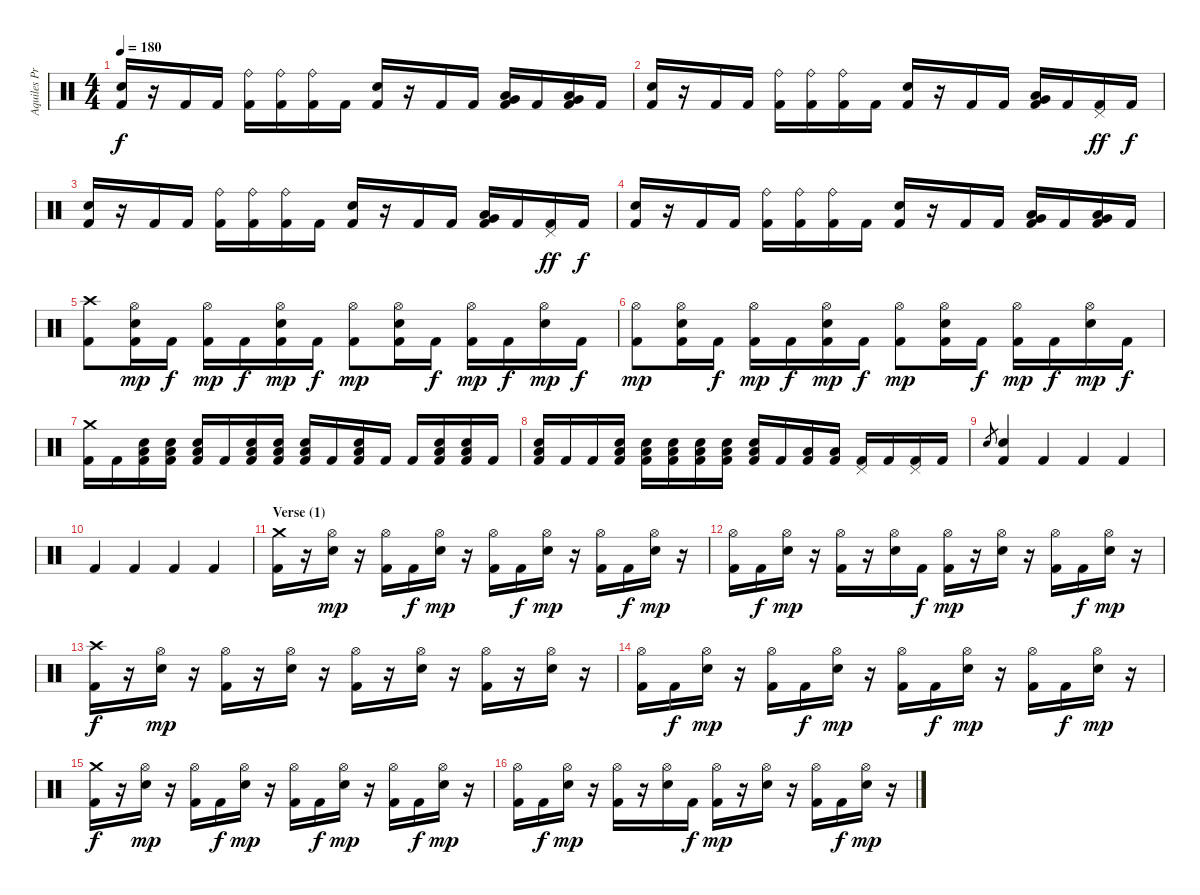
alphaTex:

\track ("Aquiles Priester" "Aquiles Pr") {instrument percussion}
\staff {score}
\articulation defaults
\ts (4 4)
\tempo 180
\clef neutral
\ks c
("Snare (hit) 2" "Kick (hit) 2").16{dy f} r.16 "Kick (hit) 2".16 "Kick (hit) 2".16 ("Ride (bell)" "Kick (hit) 2").16 ("Ride (bell)" "Kick (hit) 2").16 ("Ride (bell)" "Kick (hit) 2").16 "Kick (hit) 2".16 ("Snare (hit) 2" "Kick (hit) 2").16 r.16 "Kick (hit) 2".16 "Kick (hit) 2".16 ("Very Low Tom (hit)" "Low Floor Tom (hit)" "Kick (hit) 2").16 "Kick (hit) 2".16 ("Very Low Tom (hit)" "Low Floor Tom (hit)" "Kick (hit) 2").16 "Kick (hit) 2".16 |
("Snare (hit) 2" "Kick (hit) 2").16 r.16 "Kick (hit) 2".16 "Kick (hit) 2".16 ("Ride (bell)" "Kick (hit) 2").16 ("Ride (bell)" "Kick (hit) 2").16 ("Ride (bell)" "Kick (hit) 2").16 "Kick (hit) 2".16 ("Snare (hit) 2" "Kick (hit) 2").16 r.16 "Kick (hit) 2".16 "Kick (hit) 2".16 ("Very Low Tom (hit)" "Low Floor Tom (hit)" "Kick (hit) 2").16 "Kick (hit) 2".16 ("Pedal Hi-Hat (hit)" "Kick (hit) 2").16{dy ff} "Kick (hit) 2".16{dy f} |
("Snare (hit) 2" "Kick (hit) 2").16 r.16 "Kick (hit) 2".16 "Kick (hit) 2".16 ("Ride (bell)" "Kick (hit) 2").16 ("Ride (bell)" "Kick (hit) 2").16 ("Ride (bell)" "Kick (hit) 2").16 "Kick (hit) 2".16 ("Snare (hit) 2" "Kick (hit) 2").16 r.16 "Kick (hit) 2".16 "Kick (hit) 2".16 ("Very Low Tom (hit)" "Low Floor Tom (hit)" "Kick (hit) 2").16 "Kick (hit) 2".16 ("Pedal Hi-Hat (hit)" "Kick (hit) 2").16{dy ff} "Kick (hit) 2".16{dy f} |
("Snare (hit) 2" "Kick (hit) 2").16 r.16 "Kick (hit) 2".16 "Kick (hit) 2".16 ("Ride (bell)" "Kick (hit) 2").16 ("Ride (bell)" "Kick (hit) 2").16 ("Ride (bell)" "Kick (hit) 2").16 "Kick (hit) 2".16 ("Snare (hit) 2" "Kick (hit) 2").16 r.16 "Kick (hit) 2".16 "Kick (hit) 2".16 ("Very Low Tom (hit)" "Low Floor Tom (hit)" "Kick (hit) 2").16 "Kick (hit) 2".16 ("Very Low Tom (hit)" "Low Floor Tom (hit)" "Kick (hit) 2").16 "Kick (hit) 2".16 |
("Crash high (hit)" "Kick (hit) 2").8 ("Hi-Hat (open)" "Snare (hit) 2" "Kick (hit) 2").16{dy mp} "Kick (hit) 2".16{dy f} ("Hi-Hat (open)" "Kick (hit) 2").16{dy mp} "Kick (hit) 2".16{dy f} ("Hi-Hat (open)" "Snare (hit) 2" "Kick (hit) 2").16{dy mp} "Kick (hit) 2".16{dy f} ("Hi-Hat (open)" "Kick (hit) 2").8{dy mp} ("Hi-Hat (open)" "Snare (hit) 2" "Kick (hit) 2").16 "Kick (hit) 2".16{dy f} ("Hi-Hat (open)" "Kick (hit) 2").16{dy mp} "Kick (hit) 2".16{dy f} ("Hi-Hat (open)" "Snare (hit) 2").16{dy mp} "Kick (hit) 2".16{dy f} |
("Hi-Hat (open)" "Kick (hit) 2").8{dy mp} ("Hi-Hat (open)" "Snare (hit) 2" "Kick (hit) 2").16 "Kick (hit) 2".16{dy f} ("Hi-Hat (open)" "Kick (hit) 2").16{dy mp} "Kick (hit) 2".16{dy f} ("Hi-Hat (open)" "Snare (hit) 2" "Kick (hit) 2").16{dy mp} "Kick (hit) 2".16{dy f} ("Hi-Hat (open)" "Kick (hit) 2").8{dy mp} ("Hi-Hat (open)" "Snare (hit) 2" "Kick (hit) 2").16 "Kick (hit) 2".16{dy f} ("Hi-Hat (open)" "Kick (hit) 2").16{dy mp} "Kick (hit) 2".16{dy f} ("Hi-Hat (open)" "Snare (hit) 2").16{dy mp} "Kick (hit) 2".16{dy f} |
("Crash medium (hit)" "Kick (hit) 2").16 "Kick (hit) 2".16 ("Low Floor Tom (hit)" "Snare (hit) 2" "Kick (hit) 2").16 ("Low Floor Tom (hit)" "Snare (hit) 2" "Kick (hit) 2").16 ("Low Floor Tom (hit)" "Snare (hit) 2" "Kick (hit) 2").16 "Kick (hit) 2".16 ("Low Floor Tom (hit)" "Snare (hit) 2" "Kick (hit) 2").16 ("Low Floor Tom (hit)" "Snare (hit) 2" "Kick (hit) 2").16 ("Low Floor Tom (hit)" "Snare (hit) 2" "Kick (hit) 2").16 "Kick (hit) 2".16 ("Low Floor Tom (hit)" "Snare (hit) 2" "Kick (hit) 2").16 "Kick (hit) 2".16 "Kick (hit) 2".16 ("Low Floor Tom (hit)" "Snare (hit) 2" "Kick (hit) 2").16 ("Low Floor Tom (hit)" "Snare (hit) 2" "Kick (hit) 2").16 "Kick (hit) 2".16 |
("Low Floor Tom (hit)" "Snare (hit) 2" "Kick (hit) 2").16 "Kick (hit) 2".16 "Kick (hit) 2".16 ("Low Floor Tom (hit)" "Snare (hit) 2" "Kick (hit) 2").16 ("Low Floor Tom (hit)" "Snare (hit) 2" "Kick (hit) 2").16 ("Low Floor Tom (hit)" "Snare (hit) 2" "Kick (hit) 2").16 ("Low Floor Tom (hit)" "Snare (hit) 2" "Kick (hit) 2").16 ("Low Floor Tom (hit)" "Snare (hit) 2" "Kick (hit) 2").16 ("Low Floor Tom (hit)" "Snare (hit) 2" "Kick (hit) 2").16 "Kick (hit) 2".16 ("Low Tom (hit)" "Kick (hit) 2").16 ("Low Tom (hit)" "Kick (hit) 2").16 ("Pedal Hi-Hat (hit)" "Kick (hit) 2").16 "Kick (hit) 2".16 ("Pedal Hi-Hat (hit)" "Kick (hit) 2").16 "Kick (hit) 2".16 |
"Snare (hit) 2".8{gr} ("Snare (hit) 2" "Kick (hit) 2").4 "Kick (hit) 2".4 "Kick (hit) 2".4 "Kick (hit) 2".4 |
"Kick (hit) 2".4 "Kick (hit) 2".4 "Kick (hit) 2".4 "Kick (hit) 2".4 |
\section ("" "Verse (1)")
("Crash medium (hit)" "Kick (hit) 2").16 r.16 ("Hi-Hat (open)" "Snare (hit) 2").16{dy mp} r.16 ("Hi-Hat (open)" "Kick (hit) 2").16 "Kick (hit) 2".16{dy f} ("Hi-Hat (open)" "Snare (hit) 2").16{dy mp} r.16 ("Hi-Hat (open)" "Kick (hit) 2").16 "Kick (hit) 2".16{dy f} ("Hi-Hat (open)" "Snare (hit) 2").16{dy mp} r.16 ("Hi-Hat (open)" "Kick (hit) 2").16 "Kick (hit) 2".16{dy f} ("Hi-Hat (open)" "Snare (hit) 2").16{dy mp} r.16 |
("Hi-Hat (open)" "Kick (hit) 2").16 "Kick (hit) 2".16{dy f} ("Hi-Hat (open)" "Snare (hit) 2").16{dy mp} r.16 ("Hi-Hat (open)" "Kick (hit) 2").16 r.16 ("Hi-Hat (open)" "Snare (hit) 2").16 "Kick (hit) 2".16{dy f} ("Hi-Hat (open)" "Kick (hit) 2").16{dy mp} r.16 ("Hi-Hat (open)" "Snare (hit) 2").16 r.16 ("Hi-Hat (open)" "Kick (hit) 2").16 "Kick (hit) 2".16{dy f} ("Hi-Hat (open)" "Snare (hit) 2").16{dy mp} r.16 |
("Crash high (hit)" "Kick (hit) 2").16{dy f} r.16 ("Hi-Hat (open)" "Snare (hit) 2").16{dy mp} r.16 ("Hi-Hat (open)" "Kick (hit) 2").16 r.16 ("Hi-Hat (open)" "Snare (hit) 2").16 r.16 ("Hi-Hat (open)" "Kick (hit) 2").16 r.16 ("Hi-Hat (open)" "Snare (hit) 2").16 r.16 ("Hi-Hat (open)" "Kick (hit) 2").16 r.16 ("Hi-Hat (open)" "Snare (hit) 2").16 r.16 |
("Hi-Hat (open)" "Kick (hit) 2").16 "Kick (hit) 2".16{dy f} ("Hi-Hat (open)" "Snare (hit) 2").16{dy mp} r.16 ("Hi-Hat (open)" "Kick (hit) 2").16 "Kick (hit) 2".16{dy f} ("Hi-Hat (open)" "Snare (hit) 2").16{dy mp} r.16 ("Hi-Hat (open)" "Kick (hit) 2").16 "Kick (hit) 2".16{dy f} ("Hi-Hat (open)" "Snare (hit) 2").16{dy mp} r.16 ("Hi-Hat (open)" "Kick (hit) 2").16 "Kick (hit) 2".16{dy f} ("Hi-Hat (open)" "Snare (hit) 2").16{dy mp} r.16 |
("Crash medium (hit)" "Kick (hit) 2").16{dy f} r.16 ("Hi-Hat (open)" "Snare (hit) 2").16{dy mp} r.16 ("Hi-Hat (open)" "Kick (hit) 2").16 "Kick (hit) 2".16{dy f} ("Hi-Hat (open)" "Snare (hit) 2").16{dy mp} r.16 ("Hi-Hat (open)" "Kick (hit) 2").16 "Kick (hit) 2".16{dy f} ("Hi-Hat (open)" "Snare (hit) 2").16{dy mp} r.16 ("Hi-Hat (open)" "Kick (hit) 2").16 "Kick (hit) 2".16{dy f} ("Hi-Hat (open)" "Snare (hit) 2").16{dy mp} r.16 |
("Hi-Hat (open)" "Kick (hit) 2").16 "Kick (hit) 2".16{dy f} ("Hi-Hat (open)" "Snare (hit) 2").16{dy mp} r.16 ("Hi-Hat (open)" "Kick (hit) 2").16 r.16 ("Hi-Hat (open)" "Snare (hit) 2").16 "Kick (hit) 2".16{dy f} ("Hi-Hat (open)" "Kick (hit) 2").16{dy mp} r.16 ("Hi-Hat (open)" "Snare (hit) 2").16 r.16 ("Hi-Hat (open)" "Kick (hit) 2").16 "Kick (hit) 2".16{dy f} ("Hi-Hat (open)" "Snare (hit) 2").16{dy mp} r.16
